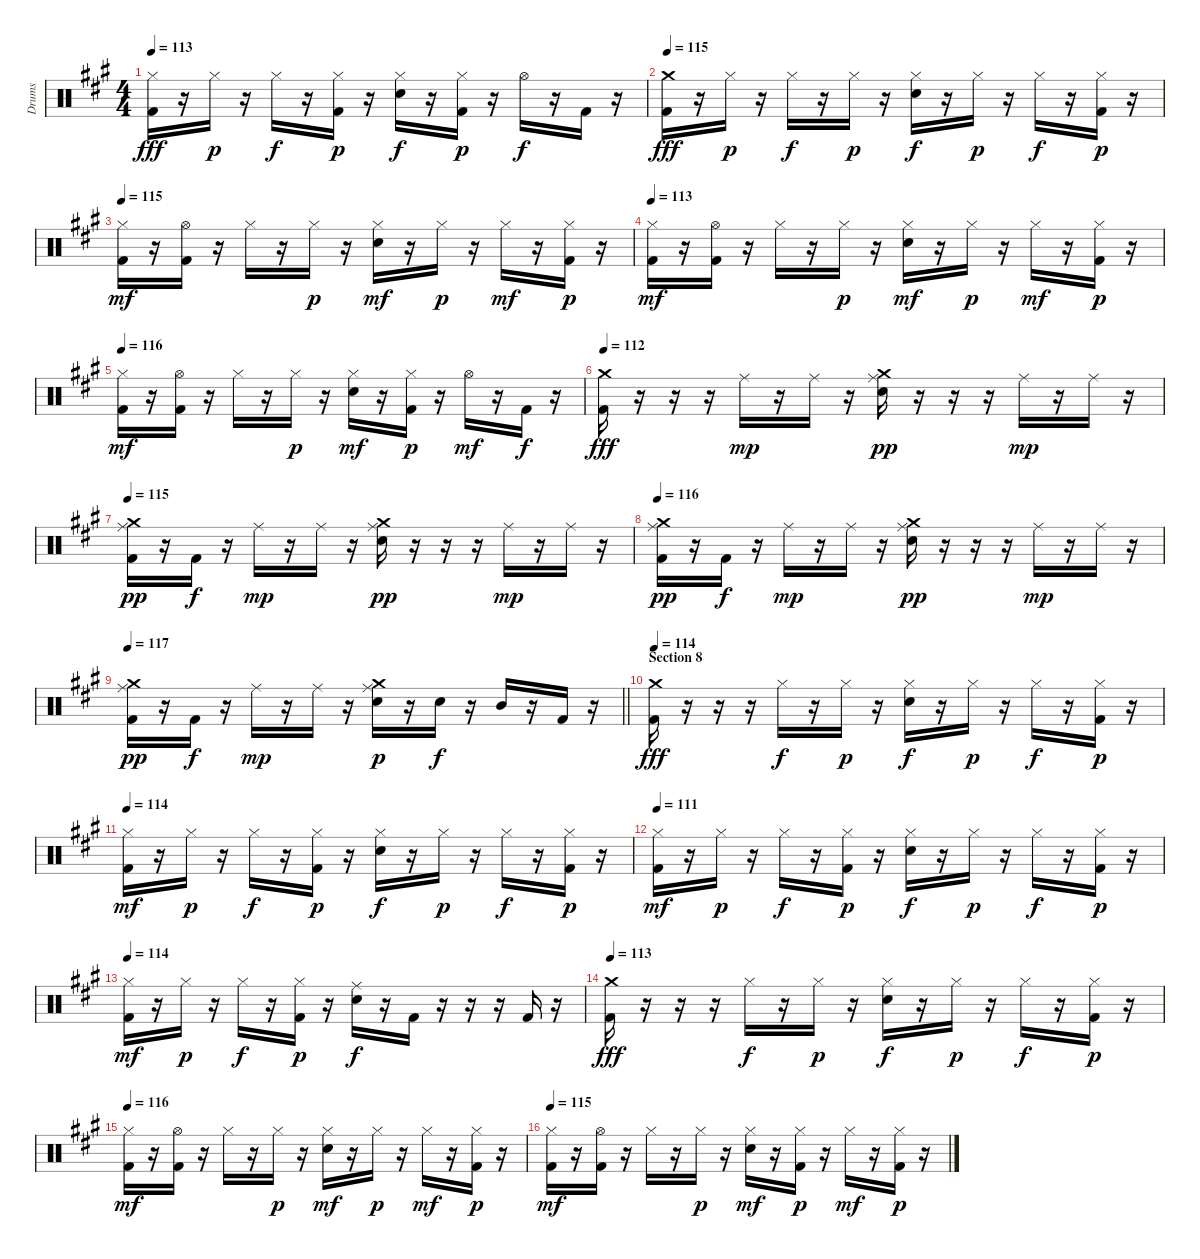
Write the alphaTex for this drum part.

\track ("Drums" "Drums") {instrument percussion}
\staff {score}
\articulation defaults
\ts (4 4)
\tempo 113
\clef neutral
\ks f#minor
("Hi-Hat (closed)" "Kick (hit) 2").16{dy fff} r.16 "Hi-Hat (closed)".16{dy p} r.16 "Hi-Hat (closed)".16{dy f} r.16 ("Hi-Hat (closed)" "Kick (hit) 2").16{dy p} r.16 ("Hi-Hat (closed)" "Electric Snare (hit)").16{dy f} r.16 ("Hi-Hat (closed)" "Kick (hit) 2").16{dy p} r.16 "Hi-Hat (open)".16{dy f} r.16 "Kick (hit) 2".16 r.16 |
\tempo 115
("Crash medium (hit)" "Kick (hit) 2").16{dy fff} r.16 "Hi-Hat (closed)".16{dy p} r.16 "Hi-Hat (closed)".16{dy f} r.16 "Hi-Hat (closed)".16{dy p} r.16 ("Hi-Hat (closed)" "Electric Snare (hit)").16{dy f} r.16 "Hi-Hat (closed)".16{dy p} r.16 "Hi-Hat (closed)".16{dy f} r.16 ("Hi-Hat (closed)" "Kick (hit) 2").16{dy p} r.16 |
\tempo 115
("Hi-Hat (closed)" "Kick (hit) 2").16{dy mf} r.16 ("Hi-Hat (open)" "Kick (hit) 2").16 r.16 "Hi-Hat (closed)".16 r.16 "Hi-Hat (closed)".16{dy p} r.16 ("Hi-Hat (closed)" "Electric Snare (hit)").16{dy mf} r.16 "Hi-Hat (closed)".16{dy p} r.16 "Hi-Hat (closed)".16{dy mf} r.16 ("Hi-Hat (closed)" "Kick (hit) 2").16{dy p} r.16 |
\tempo 113
("Hi-Hat (closed)" "Kick (hit) 2").16{dy mf} r.16 ("Hi-Hat (open)" "Kick (hit) 2").16 r.16 "Hi-Hat (closed)".16 r.16 "Hi-Hat (closed)".16{dy p} r.16 ("Hi-Hat (closed)" "Electric Snare (hit)").16{dy mf} r.16 "Hi-Hat (closed)".16{dy p} r.16 "Hi-Hat (closed)".16{dy mf} r.16 ("Hi-Hat (closed)" "Kick (hit) 2").16{dy p} r.16 |
\tempo 116
("Hi-Hat (closed)" "Kick (hit) 2").16{dy mf} r.16 ("Hi-Hat (open)" "Kick (hit) 2").16 r.16 "Hi-Hat (closed)".16 r.16 "Hi-Hat (closed)".16{dy p} r.16 ("Hi-Hat (closed)" "Electric Snare (hit)").16{dy mf} r.16 ("Hi-Hat (closed)" "Kick (hit) 2").16{dy p} r.16 "Hi-Hat (open)".16{dy mf} r.16 "Kick (hit) 2".16{dy f} r.16 |
\tempo 112
("Crash medium (hit)" "Kick (hit) 2").16{dy fff} r.16 r.16 r.16 "Ride (middle)".16{dy mp} r.16 "Ride (middle)".16 r.16 ("Ride (middle)" "Crash medium (hit)" "Electric Snare (hit)").16{dy pp} r.16 r.16 r.16 "Ride (middle)".16{dy mp} r.16 "Ride (middle)".16 r.16 |
\tempo 115
("Ride (middle)" "Crash medium (hit)" "Kick (hit) 2").16{dy pp} r.16 "Kick (hit) 2".16{dy f} r.16 "Ride (middle)".16{dy mp} r.16 "Ride (middle)".16 r.16 ("Ride (middle)" "Crash medium (hit)" "Electric Snare (hit)").16{dy pp} r.16 r.16 r.16 "Ride (middle)".16{dy mp} r.16 "Ride (middle)".16 r.16 |
\tempo 116
("Ride (middle)" "Crash medium (hit)" "Kick (hit) 2").16{dy pp} r.16 "Kick (hit) 2".16{dy f} r.16 "Ride (middle)".16{dy mp} r.16 "Ride (middle)".16 r.16 ("Ride (middle)" "Crash medium (hit)" "Electric Snare (hit)").16{dy pp} r.16 r.16 r.16 "Ride (middle)".16{dy mp} r.16 "Ride (middle)".16 r.16 |
\tempo 117
\barLineRight lightlight
("Ride (middle)" "Crash medium (hit)" "Kick (hit) 2").16{dy pp} r.16 "Kick (hit) 2".16{dy f} r.16 "Ride (middle)".16{dy mp} r.16 "Ride (middle)".16 r.16 ("Ride (middle)" "Crash medium (hit)" "Electric Snare (hit)").16{dy p} r.16 "Electric Snare (hit)".16{dy f} r.16 "Mid Tom (hit)".16 r.16 "Kick (hit) 2".16 r.16 |
\section ("" "Section 8")
\tempo 114
("Crash medium (hit)" "Kick (hit) 2").16{dy fff} r.16 r.16 r.16 "Hi-Hat (closed)".16{dy f} r.16 "Hi-Hat (closed)".16{dy p} r.16 ("Hi-Hat (closed)" "Electric Snare (hit)").16{dy f} r.16 "Hi-Hat (closed)".16{dy p} r.16 "Hi-Hat (closed)".16{dy f} r.16 ("Hi-Hat (closed)" "Kick (hit) 2").16{dy p} r.16 |
\tempo 114
("Hi-Hat (closed)" "Kick (hit) 2").16{dy mf} r.16 "Hi-Hat (closed)".16{dy p} r.16 "Hi-Hat (closed)".16{dy f} r.16 ("Hi-Hat (closed)" "Kick (hit) 2").16{dy p} r.16 ("Hi-Hat (closed)" "Electric Snare (hit)").16{dy f} r.16 "Hi-Hat (closed)".16{dy p} r.16 "Hi-Hat (closed)".16{dy f} r.16 ("Hi-Hat (closed)" "Kick (hit) 2").16{dy p} r.16 |
\tempo 111
("Hi-Hat (closed)" "Kick (hit) 2").16{dy mf} r.16 "Hi-Hat (closed)".16{dy p} r.16 "Hi-Hat (closed)".16{dy f} r.16 ("Hi-Hat (closed)" "Kick (hit) 2").16{dy p} r.16 ("Hi-Hat (closed)" "Electric Snare (hit)").16{dy f} r.16 "Hi-Hat (closed)".16{dy p} r.16 "Hi-Hat (closed)".16{dy f} r.16 ("Hi-Hat (closed)" "Kick (hit) 2").16{dy p} r.16 |
\tempo 114
("Hi-Hat (closed)" "Kick (hit) 2").16{dy mf} r.16 "Hi-Hat (closed)".16{dy p} r.16 "Hi-Hat (closed)".16{dy f} r.16 ("Hi-Hat (closed)" "Kick (hit) 2").16{dy p} r.16 ("Ride (middle)" "Electric Snare (hit)").16{dy f} r.16 "Kick (hit) 2".16 r.16 r.16 r.16 "Kick (hit) 2".16 r.16 |
\tempo 113
("Crash medium (hit)" "Kick (hit) 2").16{dy fff} r.16 r.16 r.16 "Hi-Hat (closed)".16{dy f} r.16 "Hi-Hat (closed)".16{dy p} r.16 ("Hi-Hat (closed)" "Electric Snare (hit)").16{dy f} r.16 "Hi-Hat (closed)".16{dy p} r.16 "Hi-Hat (closed)".16{dy f} r.16 ("Hi-Hat (closed)" "Kick (hit) 2").16{dy p} r.16 |
\tempo 116
("Hi-Hat (closed)" "Kick (hit) 2").16{dy mf} r.16 ("Hi-Hat (open)" "Kick (hit) 2").16 r.16 "Hi-Hat (closed)".16 r.16 "Hi-Hat (closed)".16{dy p} r.16 ("Hi-Hat (closed)" "Electric Snare (hit)").16{dy mf} r.16 "Hi-Hat (closed)".16{dy p} r.16 "Hi-Hat (closed)".16{dy mf} r.16 ("Hi-Hat (closed)" "Kick (hit) 2").16{dy p} r.16 |
\tempo 115
("Hi-Hat (closed)" "Kick (hit) 2").16{dy mf} r.16 ("Hi-Hat (open)" "Kick (hit) 2").16 r.16 "Hi-Hat (closed)".16 r.16 "Hi-Hat (closed)".16{dy p} r.16 ("Hi-Hat (closed)" "Electric Snare (hit)").16{dy mf} r.16 ("Hi-Hat (closed)" "Kick (hit) 2").16{dy p} r.16 "Hi-Hat (closed)".16{dy mf} r.16 ("Hi-Hat (closed)" "Kick (hit) 2").16{dy p} r.16
